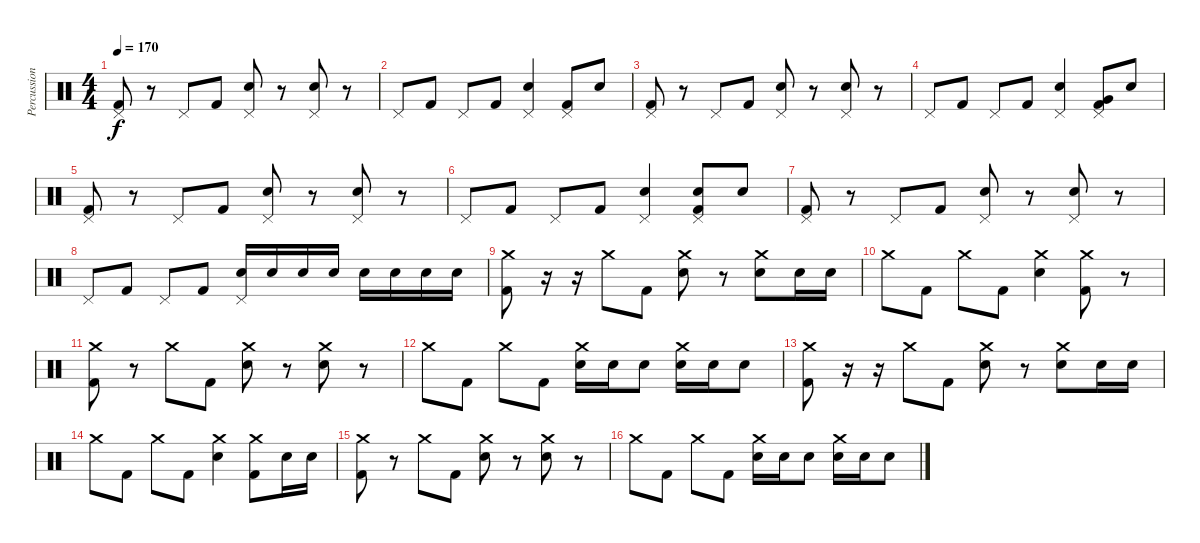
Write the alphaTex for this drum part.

\track ("Percussion" "Percussion") {instrument percussion}
\staff {score}
\articulation defaults
\ts (4 4)
\tempo 170
\clef neutral
\ks c
("Pedal Hi-Hat (hit)" "Kick (hit) 2").8{dy f} r.8 "Pedal Hi-Hat (hit)".8 "Kick (hit) 2".8 ("Pedal Hi-Hat (hit)" "Electric Snare (hit)").8 r.8 ("Pedal Hi-Hat (hit)" "Electric Snare (hit)").8 r.8 |
"Pedal Hi-Hat (hit)".8 "Kick (hit) 2".8 "Pedal Hi-Hat (hit)".8 "Kick (hit) 2".8 ("Pedal Hi-Hat (hit)" "Electric Snare (hit)").4 ("Pedal Hi-Hat (hit)" "Kick (hit) 2").8 "Electric Snare (hit)".8 |
("Pedal Hi-Hat (hit)" "Kick (hit) 2").8 r.8 "Pedal Hi-Hat (hit)".8 "Kick (hit) 2".8 ("Pedal Hi-Hat (hit)" "Electric Snare (hit)").8 r.8 ("Pedal Hi-Hat (hit)" "Electric Snare (hit)").8 r.8 |
"Pedal Hi-Hat (hit)".8 "Kick (hit) 2".8 "Pedal Hi-Hat (hit)".8 "Kick (hit) 2".8 ("Pedal Hi-Hat (hit)" "Electric Snare (hit)").4 ("Pedal Hi-Hat (hit)" "Very Low Tom (hit)" "Kick (hit) 2").8 "Electric Snare (hit)".8 |
("Pedal Hi-Hat (hit)" "Kick (hit) 2").8 r.8 "Pedal Hi-Hat (hit)".8 "Kick (hit) 2".8 ("Pedal Hi-Hat (hit)" "Electric Snare (hit)").8 r.8 ("Pedal Hi-Hat (hit)" "Electric Snare (hit)").8 r.8 |
"Pedal Hi-Hat (hit)".8 "Kick (hit) 2".8 "Pedal Hi-Hat (hit)".8 "Kick (hit) 2".8 ("Pedal Hi-Hat (hit)" "Electric Snare (hit)").4 ("Pedal Hi-Hat (hit)" "Electric Snare (hit)" "Kick (hit) 2").8 "Electric Snare (hit)".8 |
("Pedal Hi-Hat (hit)" "Kick (hit) 2").8 r.8 "Pedal Hi-Hat (hit)".8 "Kick (hit) 2".8 ("Pedal Hi-Hat (hit)" "Electric Snare (hit)").8 r.8 ("Pedal Hi-Hat (hit)" "Electric Snare (hit)").8 r.8 |
"Pedal Hi-Hat (hit)".8 "Kick (hit) 2".8 "Pedal Hi-Hat (hit)".8 "Kick (hit) 2".8 ("Pedal Hi-Hat (hit)" "Electric Snare (hit)").16 "Electric Snare (hit)".16 "Electric Snare (hit)".16 "Electric Snare (hit)".16 "Electric Snare (hit)".16 "Electric Snare (hit)".16 "Electric Snare (hit)".16 "Electric Snare (hit)".16 |
("Crash medium (hit)" "Kick (hit) 2").8 r.16 r.16 "Crash medium (hit)".8 "Kick (hit) 2".8 ("Crash medium (hit)" "Electric Snare (hit)").8 r.8 ("Crash medium (hit)" "Electric Snare (hit)").8 "Electric Snare (hit)".16 "Electric Snare (hit)".16 |
"Crash medium (hit)".8 "Kick (hit) 2".8 "Crash medium (hit)".8 "Kick (hit) 2".8 ("Crash medium (hit)" "Electric Snare (hit)").4 ("Crash medium (hit)" "Kick (hit) 2").8 r.8 |
("Crash medium (hit)" "Kick (hit) 2").8 r.8 "Crash medium (hit)".8 "Kick (hit) 2".8 ("Crash medium (hit)" "Electric Snare (hit)").8 r.8 ("Crash medium (hit)" "Electric Snare (hit)").8 r.8 |
"Crash medium (hit)".8 "Kick (hit) 2".8 "Crash medium (hit)".8 "Kick (hit) 2".8 ("Crash medium (hit)" "Electric Snare (hit)").16 "Electric Snare (hit)".16 "Electric Snare (hit)".8 ("Crash medium (hit)" "Electric Snare (hit)").16 "Electric Snare (hit)".16 "Electric Snare (hit)".8 |
("Crash medium (hit)" "Kick (hit) 2").8 r.16 r.16 "Crash medium (hit)".8 "Kick (hit) 2".8 ("Crash medium (hit)" "Electric Snare (hit)").8 r.8 ("Crash medium (hit)" "Electric Snare (hit)").8 "Electric Snare (hit)".16 "Electric Snare (hit)".16 |
"Crash medium (hit)".8 "Kick (hit) 2".8 "Crash medium (hit)".8 "Kick (hit) 2".8 ("Crash medium (hit)" "Electric Snare (hit)").4 ("Crash medium (hit)" "Kick (hit) 2").8 "Electric Snare (hit)".16 "Electric Snare (hit)".16 |
("Crash medium (hit)" "Kick (hit) 2").8 r.8 "Crash medium (hit)".8 "Kick (hit) 2".8 ("Crash medium (hit)" "Electric Snare (hit)").8 r.8 ("Crash medium (hit)" "Electric Snare (hit)").8 r.8 |
"Crash medium (hit)".8 "Kick (hit) 2".8 "Crash medium (hit)".8 "Kick (hit) 2".8 ("Crash medium (hit)" "Electric Snare (hit)").16 "Electric Snare (hit)".16 "Electric Snare (hit)".8 ("Crash medium (hit)" "Electric Snare (hit)").16 "Electric Snare (hit)".16 "Electric Snare (hit)".8
